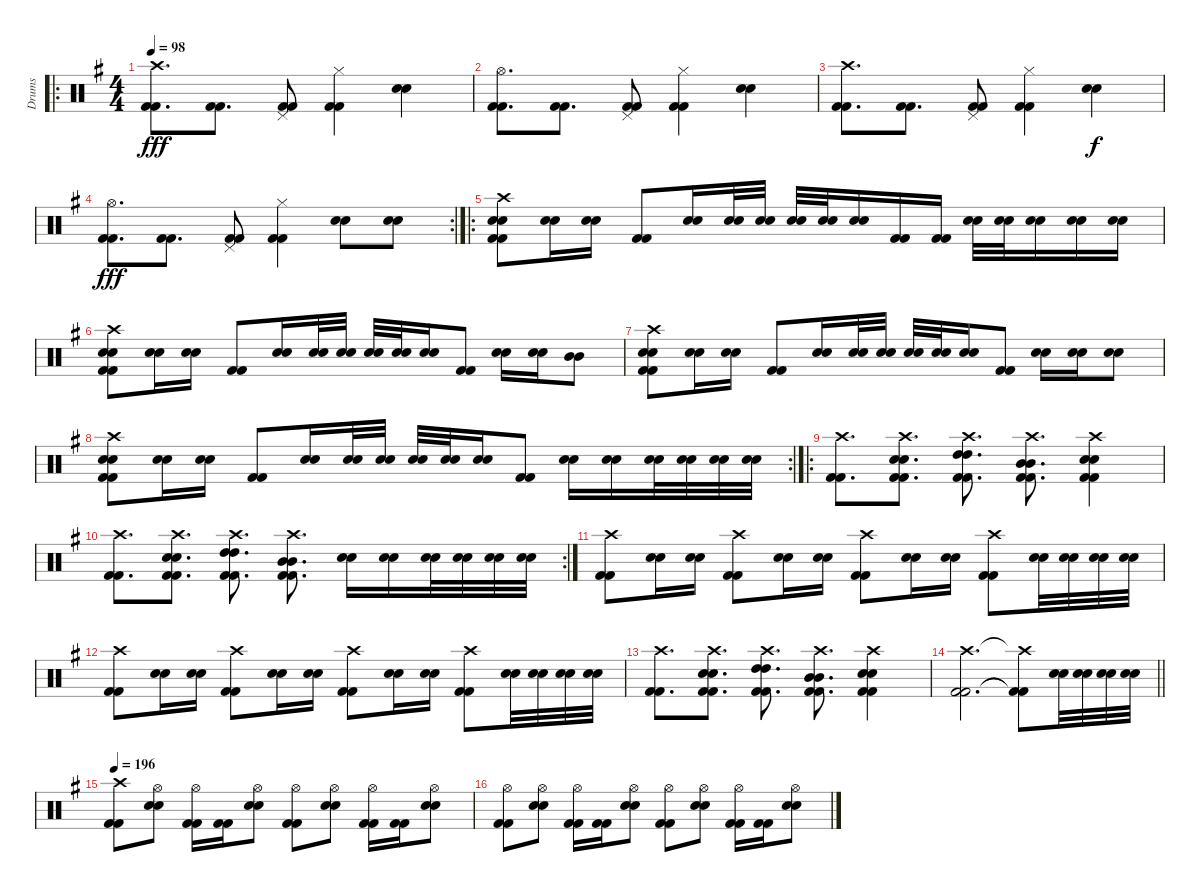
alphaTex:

\track ("Drums" "Drums") {instrument percussion}
\staff {score}
\articulation defaults
\ro
\ts (4 4)
\tempo 98
\clef neutral
\ks g
("Crash high (hit)" "Kick (hit) 2" "Kick (hit) 2").8{d dy fff} ("Kick (hit) 2" "Kick (hit) 2").8{d} ("Pedal Hi-Hat (hit)" "Kick (hit) 2" "Kick (hit) 2").8 ("Hi-Hat (closed)" "Kick (hit) 2" "Kick (hit) 2").4 ("Snare (hit) 2" "Snare (hit) 2").4 |
("Hi-Hat (open)" "Kick (hit) 2" "Kick (hit) 2").8{d} ("Kick (hit) 2" "Kick (hit) 2").8{d} ("Pedal Hi-Hat (hit)" "Kick (hit) 2" "Kick (hit) 2").8 ("Hi-Hat (closed)" "Kick (hit) 2" "Kick (hit) 2").4 ("Snare (hit) 2" "Snare (hit) 2").4 |
("Crash high (hit)" "Kick (hit) 2" "Kick (hit) 2").8{d} ("Kick (hit) 2" "Kick (hit) 2").8{d} ("Pedal Hi-Hat (hit)" "Kick (hit) 2" "Kick (hit) 2").8 ("Hi-Hat (closed)" "Kick (hit) 2" "Kick (hit) 2").4 ("Snare (hit) 2" "Snare (hit) 2").4{dy f} |
\rc 2
("Hi-Hat (open)" "Kick (hit) 2" "Kick (hit) 2").8{d dy fff} ("Kick (hit) 2" "Kick (hit) 2").8{d} ("Pedal Hi-Hat (hit)" "Kick (hit) 2" "Kick (hit) 2").8 ("Hi-Hat (closed)" "Kick (hit) 2" "Kick (hit) 2").4 ("Snare (hit) 2" "Snare (hit) 2").8 ("Snare (hit) 2" "Snare (hit) 2").8 |
\ro
("Crash high (hit)" "Snare (hit) 2" "Snare (hit) 2" "Kick (hit) 2" "Kick (hit) 2").8 ("Snare (hit) 2" "Snare (hit) 2").16 ("Snare (hit) 2" "Snare (hit) 2").16 ("Kick (hit) 2" "Kick (hit) 2").8 ("Snare (hit) 2" "Snare (hit) 2").16 ("Snare (hit) 2" "Snare (hit) 2").32 ("Snare (hit) 2" "Snare (hit) 2").32 ("Snare (hit) 2" "Snare (hit) 2").32 ("Snare (hit) 2" "Snare (hit) 2").32 ("Snare (hit) 2" "Snare (hit) 2").16 ("Kick (hit) 2" "Kick (hit) 2").16 ("Kick (hit) 2" "Kick (hit) 2").16 ("Snare (hit) 2" "Snare (hit) 2").32 ("Snare (hit) 2" "Snare (hit) 2").32 ("Snare (hit) 2" "Snare (hit) 2").16 ("Snare (hit) 2" "Snare (hit) 2").16 ("Snare (hit) 2" "Snare (hit) 2").16 |
("Crash high (hit)" "Snare (hit) 2" "Snare (hit) 2" "Kick (hit) 2" "Kick (hit) 2").8 ("Snare (hit) 2" "Snare (hit) 2").16 ("Snare (hit) 2" "Snare (hit) 2").16 ("Kick (hit) 2" "Kick (hit) 2").8 ("Snare (hit) 2" "Snare (hit) 2").16 ("Snare (hit) 2" "Snare (hit) 2").32 ("Snare (hit) 2" "Snare (hit) 2").32 ("Snare (hit) 2" "Snare (hit) 2").32 ("Snare (hit) 2" "Snare (hit) 2").32 ("Snare (hit) 2" "Snare (hit) 2").16 ("Kick (hit) 2" "Kick (hit) 2").8 ("Snare (hit) 2" "Snare (hit) 2").16 ("Snare (hit) 2" "Snare (hit) 2").16 ("Mid Tom (hit)" "Mid Tom (hit)").8 |
("Crash high (hit)" "Snare (hit) 2" "Snare (hit) 2" "Kick (hit) 2" "Kick (hit) 2").8 ("Snare (hit) 2" "Snare (hit) 2").16 ("Snare (hit) 2" "Snare (hit) 2").16 ("Kick (hit) 2" "Kick (hit) 2").8 ("Snare (hit) 2" "Snare (hit) 2").16 ("Snare (hit) 2" "Snare (hit) 2").32 ("Snare (hit) 2" "Snare (hit) 2").32 ("Snare (hit) 2" "Snare (hit) 2").32 ("Snare (hit) 2" "Snare (hit) 2").32 ("Snare (hit) 2" "Snare (hit) 2").16 ("Kick (hit) 2" "Kick (hit) 2").8 ("Snare (hit) 2" "Snare (hit) 2").16 ("Snare (hit) 2" "Snare (hit) 2").16 ("Snare (hit) 2" "Snare (hit) 2").8 |
\rc 2
("Crash high (hit)" "Snare (hit) 2" "Snare (hit) 2" "Kick (hit) 2" "Kick (hit) 2").8 ("Snare (hit) 2" "Snare (hit) 2").16 ("Snare (hit) 2" "Snare (hit) 2").16 ("Kick (hit) 2" "Kick (hit) 2").8 ("Snare (hit) 2" "Snare (hit) 2").16 ("Snare (hit) 2" "Snare (hit) 2").32 ("Snare (hit) 2" "Snare (hit) 2").32 ("Snare (hit) 2" "Snare (hit) 2").32 ("Snare (hit) 2" "Snare (hit) 2").32 ("Snare (hit) 2" "Snare (hit) 2").16 ("Kick (hit) 2" "Kick (hit) 2").8 ("Snare (hit) 2" "Snare (hit) 2").16 ("Snare (hit) 2" "Snare (hit) 2").16 ("Snare (hit) 2" "Snare (hit) 2").32 ("Snare (hit) 2" "Snare (hit) 2").32 ("Snare (hit) 2" "Snare (hit) 2").32 ("Snare (hit) 2" "Snare (hit) 2").32 |
\ro
("Crash high (hit)" "Kick (hit) 2" "Kick (hit) 2").8{d} ("Crash high (hit)" "Snare (hit) 2" "Snare (hit) 2" "Kick (hit) 2" "Kick (hit) 2").8{d} ("Crash high (hit)" "High Tom (hit)" "High Tom (hit)" "Kick (hit) 2" "Kick (hit) 2").8{d} ("Crash high (hit)" "Mid Tom (hit)" "Mid Tom (hit)" "Kick (hit) 2" "Kick (hit) 2").8{d} ("Crash high (hit)" "Snare (hit) 2" "Snare (hit) 2" "Kick (hit) 2" "Kick (hit) 2").4 |
\rc 2
("Crash high (hit)" "Kick (hit) 2" "Kick (hit) 2").8{d} ("Crash high (hit)" "Snare (hit) 2" "Snare (hit) 2" "Kick (hit) 2" "Kick (hit) 2").8{d} ("Crash high (hit)" "High Tom (hit)" "High Tom (hit)" "Kick (hit) 2" "Kick (hit) 2").8{d} ("Crash high (hit)" "Mid Tom (hit)" "Mid Tom (hit)" "Kick (hit) 2" "Kick (hit) 2").8{d} ("Snare (hit) 2" "Snare (hit) 2").16 ("Snare (hit) 2" "Snare (hit) 2").16 ("Snare (hit) 2" "Snare (hit) 2").32 ("Snare (hit) 2" "Snare (hit) 2").32 ("Snare (hit) 2" "Snare (hit) 2").32 ("Snare (hit) 2" "Snare (hit) 2").32 |
("Crash high (hit)" "Kick (hit) 2" "Kick (hit) 2").8 ("Snare (hit) 2" "Snare (hit) 2").16 ("Snare (hit) 2" "Snare (hit) 2").16 ("Crash high (hit)" "Kick (hit) 2" "Kick (hit) 2").8 ("Snare (hit) 2" "Snare (hit) 2").16 ("Snare (hit) 2" "Snare (hit) 2").16 ("Crash high (hit)" "Kick (hit) 2" "Kick (hit) 2").8 ("Snare (hit) 2" "Snare (hit) 2").16 ("Snare (hit) 2" "Snare (hit) 2").16 ("Crash high (hit)" "Kick (hit) 2" "Kick (hit) 2").8 ("Snare (hit) 2" "Snare (hit) 2").32 ("Snare (hit) 2" "Snare (hit) 2").32 ("Snare (hit) 2" "Snare (hit) 2").32 ("Snare (hit) 2" "Snare (hit) 2").32 |
("Crash high (hit)" "Kick (hit) 2" "Kick (hit) 2").8 ("Snare (hit) 2" "Snare (hit) 2").16 ("Snare (hit) 2" "Snare (hit) 2").16 ("Crash high (hit)" "Kick (hit) 2" "Kick (hit) 2").8 ("Snare (hit) 2" "Snare (hit) 2").16 ("Snare (hit) 2" "Snare (hit) 2").16 ("Crash high (hit)" "Kick (hit) 2" "Kick (hit) 2").8 ("Snare (hit) 2" "Snare (hit) 2").16 ("Snare (hit) 2" "Snare (hit) 2").16 ("Crash high (hit)" "Kick (hit) 2" "Kick (hit) 2").8 ("Snare (hit) 2" "Snare (hit) 2").32 ("Snare (hit) 2" "Snare (hit) 2").32 ("Snare (hit) 2" "Snare (hit) 2").32 ("Snare (hit) 2" "Snare (hit) 2").32 |
("Crash high (hit)" "Kick (hit) 2" "Kick (hit) 2").8{d} ("Crash high (hit)" "Snare (hit) 2" "Snare (hit) 2" "Kick (hit) 2" "Kick (hit) 2").8{d} ("Crash high (hit)" "High Tom (hit)" "High Tom (hit)" "Kick (hit) 2" "Kick (hit) 2").8{d} ("Crash high (hit)" "Mid Tom (hit)" "Mid Tom (hit)" "Kick (hit) 2" "Kick (hit) 2").8{d} ("Crash high (hit)" "Snare (hit) 2" "Snare (hit) 2" "Kick (hit) 2" "Kick (hit) 2").4 |
\barLineRight lightlight
("Crash high (hit)" "Kick (hit) 2" "Kick (hit) 2").2{d} ("Crash high (hit)"{t} "Kick (hit) 2"{t} "Kick (hit) 2"{t}).8 ("Snare (hit) 2" "Snare (hit) 2").32 ("Snare (hit) 2" "Snare (hit) 2").32 ("Snare (hit) 2" "Snare (hit) 2").32 ("Snare (hit) 2" "Snare (hit) 2").32 |
\tempo 196
("Crash high (hit)" "Kick (hit) 2" "Kick (hit) 2").8 ("Hi-Hat (open)" "Snare (hit) 2" "Snare (hit) 2").8 ("Hi-Hat (open)" "Kick (hit) 2" "Kick (hit) 2").16 ("Kick (hit) 2" "Kick (hit) 2").16 ("Hi-Hat (open)" "Snare (hit) 2" "Snare (hit) 2").8 ("Hi-Hat (open)" "Kick (hit) 2" "Kick (hit) 2").8 ("Hi-Hat (open)" "Snare (hit) 2" "Snare (hit) 2").8 ("Hi-Hat (open)" "Kick (hit) 2" "Kick (hit) 2").16 ("Kick (hit) 2" "Kick (hit) 2").16 ("Hi-Hat (open)" "Snare (hit) 2" "Snare (hit) 2").8 |
("Hi-Hat (open)" "Kick (hit) 2" "Kick (hit) 2").8 ("Hi-Hat (open)" "Snare (hit) 2" "Snare (hit) 2").8 ("Hi-Hat (open)" "Kick (hit) 2" "Kick (hit) 2").16 ("Kick (hit) 2" "Kick (hit) 2").16 ("Hi-Hat (open)" "Snare (hit) 2" "Snare (hit) 2").8 ("Hi-Hat (open)" "Kick (hit) 2" "Kick (hit) 2").8 ("Hi-Hat (open)" "Snare (hit) 2" "Snare (hit) 2").8 ("Hi-Hat (open)" "Kick (hit) 2" "Kick (hit) 2").16 ("Kick (hit) 2" "Kick (hit) 2").16 ("Hi-Hat (open)" "Snare (hit) 2" "Snare (hit) 2").8
